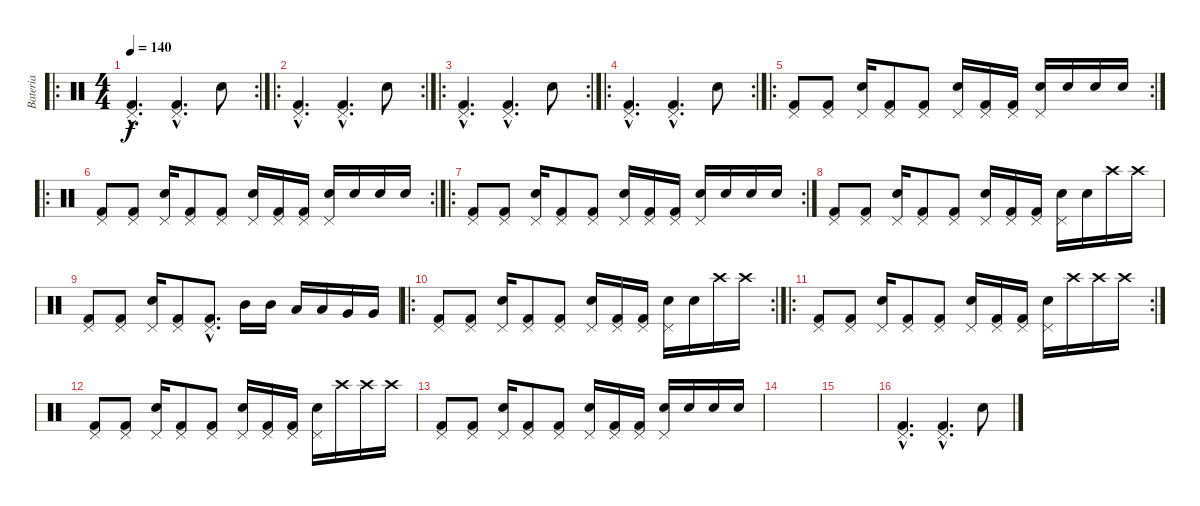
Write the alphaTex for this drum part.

\track ("Bateria" "Bateria") {instrument percussion}
\staff {score}
\articulation defaults
\ro
\rc 2
\ts (4 4)
\tempo 140
\clef neutral
\ks c
("Kick (hit) 2"{hac} "Pedal Hi-Hat (hit)"{hac}).4{d dy f} ("Kick (hit) 2"{hac} "Pedal Hi-Hat (hit)"{hac}).4{d} "Snare (hit) 2".8 |
\ro
\rc 2
("Kick (hit) 2"{hac} "Pedal Hi-Hat (hit)"{hac}).4{d} ("Kick (hit) 2"{hac} "Pedal Hi-Hat (hit)"{hac}).4{d} "Snare (hit) 2".8 |
\ro
\rc 2
("Kick (hit) 2"{hac} "Pedal Hi-Hat (hit)"{hac}).4{d} ("Kick (hit) 2"{hac} "Pedal Hi-Hat (hit)"{hac}).4{d} "Snare (hit) 2".8 |
\ro
\rc 2
("Kick (hit) 2"{hac} "Pedal Hi-Hat (hit)"{hac}).4{d} ("Kick (hit) 2"{hac} "Pedal Hi-Hat (hit)"{hac}).4{d} "Snare (hit) 2".8 |
\ro
\rc 2
("Kick (hit) 2" "Pedal Hi-Hat (hit)").8 ("Kick (hit) 2" "Pedal Hi-Hat (hit)").8 ("Snare (hit) 2" "Pedal Hi-Hat (hit)").16 ("Kick (hit) 2" "Pedal Hi-Hat (hit)").8 ("Kick (hit) 2" "Pedal Hi-Hat (hit)").8 ("Snare (hit) 2" "Pedal Hi-Hat (hit)").16 ("Kick (hit) 2" "Pedal Hi-Hat (hit)").16 ("Kick (hit) 2" "Pedal Hi-Hat (hit)").16 ("Snare (hit) 2" "Pedal Hi-Hat (hit)").16 "Snare (hit) 2".16 "Snare (hit) 2".16 "Snare (hit) 2".16 |
\ro
\rc 2
("Kick (hit) 2" "Pedal Hi-Hat (hit)").8 ("Kick (hit) 2" "Pedal Hi-Hat (hit)").8 ("Snare (hit) 2" "Pedal Hi-Hat (hit)").16 ("Kick (hit) 2" "Pedal Hi-Hat (hit)").8 ("Kick (hit) 2" "Pedal Hi-Hat (hit)").8 ("Snare (hit) 2" "Pedal Hi-Hat (hit)").16 ("Kick (hit) 2" "Pedal Hi-Hat (hit)").16 ("Kick (hit) 2" "Pedal Hi-Hat (hit)").16 ("Snare (hit) 2" "Pedal Hi-Hat (hit)").16 "Snare (hit) 2".16 "Snare (hit) 2".16 "Snare (hit) 2".16 |
\ro
\rc 2
("Kick (hit) 2" "Pedal Hi-Hat (hit)").8 ("Kick (hit) 2" "Pedal Hi-Hat (hit)").8 ("Snare (hit) 2" "Pedal Hi-Hat (hit)").16 ("Kick (hit) 2" "Pedal Hi-Hat (hit)").8 ("Kick (hit) 2" "Pedal Hi-Hat (hit)").8 ("Snare (hit) 2" "Pedal Hi-Hat (hit)").16 ("Kick (hit) 2" "Pedal Hi-Hat (hit)").16 ("Kick (hit) 2" "Pedal Hi-Hat (hit)").16 ("Snare (hit) 2" "Pedal Hi-Hat (hit)").16 "Snare (hit) 2".16 "Snare (hit) 2".16 "Snare (hit) 2".16 |
("Kick (hit) 2" "Pedal Hi-Hat (hit)").8 ("Kick (hit) 2" "Pedal Hi-Hat (hit)").8 ("Snare (hit) 2" "Pedal Hi-Hat (hit)").16 ("Kick (hit) 2" "Pedal Hi-Hat (hit)").8 ("Kick (hit) 2" "Pedal Hi-Hat (hit)").8 ("Snare (hit) 2" "Pedal Hi-Hat (hit)").16 ("Kick (hit) 2" "Pedal Hi-Hat (hit)").16 ("Kick (hit) 2" "Pedal Hi-Hat (hit)").16 ("Snare (hit) 2" "Pedal Hi-Hat (hit)").16 "Snare (hit) 2".16 "Crash high (hit)".16 "Crash high (hit)".16 |
("Kick (hit) 2" "Pedal Hi-Hat (hit)").8 ("Kick (hit) 2" "Pedal Hi-Hat (hit)").8 ("Snare (hit) 2" "Pedal Hi-Hat (hit)").16 ("Kick (hit) 2" "Pedal Hi-Hat (hit)").8 ("Kick (hit) 2"{hac} "Pedal Hi-Hat (hit)"{hac}).8{d} "Mid Tom (hit)".16 "Mid Tom (hit)".16 "Low Tom (hit)".16 "Low Tom (hit)".16 "Very Low Tom (hit)".16 "Very Low Tom (hit)".16 |
\ro
\rc 2
("Kick (hit) 2" "Pedal Hi-Hat (hit)").8 ("Kick (hit) 2" "Pedal Hi-Hat (hit)").8 ("Snare (hit) 2" "Pedal Hi-Hat (hit)").16 ("Kick (hit) 2" "Pedal Hi-Hat (hit)").8 ("Kick (hit) 2" "Pedal Hi-Hat (hit)").8 ("Snare (hit) 2" "Pedal Hi-Hat (hit)").16 ("Kick (hit) 2" "Pedal Hi-Hat (hit)").16 ("Kick (hit) 2" "Pedal Hi-Hat (hit)").16 ("Snare (hit) 2" "Pedal Hi-Hat (hit)").16 "Snare (hit) 2".16 "Crash high (hit)".16 "Crash high (hit)".16 |
\ro
\rc 2
("Kick (hit) 2" "Pedal Hi-Hat (hit)").8 ("Kick (hit) 2" "Pedal Hi-Hat (hit)").8 ("Snare (hit) 2" "Pedal Hi-Hat (hit)").16 ("Kick (hit) 2" "Pedal Hi-Hat (hit)").8 ("Kick (hit) 2" "Pedal Hi-Hat (hit)").8 ("Snare (hit) 2" "Pedal Hi-Hat (hit)").16 ("Kick (hit) 2" "Pedal Hi-Hat (hit)").16 ("Kick (hit) 2" "Pedal Hi-Hat (hit)").16 ("Snare (hit) 2" "Pedal Hi-Hat (hit)").16 "Crash high (hit)".16 "Crash high (hit)".16 "Crash high (hit)".16 |
("Kick (hit) 2" "Pedal Hi-Hat (hit)").8 ("Kick (hit) 2" "Pedal Hi-Hat (hit)").8 ("Snare (hit) 2" "Pedal Hi-Hat (hit)").16 ("Kick (hit) 2" "Pedal Hi-Hat (hit)").8 ("Kick (hit) 2" "Pedal Hi-Hat (hit)").8 ("Snare (hit) 2" "Pedal Hi-Hat (hit)").16 ("Kick (hit) 2" "Pedal Hi-Hat (hit)").16 ("Kick (hit) 2" "Pedal Hi-Hat (hit)").16 ("Snare (hit) 2" "Pedal Hi-Hat (hit)").16 "Crash high (hit)".16 "Crash high (hit)".16 "Crash high (hit)".16 |
("Kick (hit) 2" "Pedal Hi-Hat (hit)").8 ("Kick (hit) 2" "Pedal Hi-Hat (hit)").8 ("Snare (hit) 2" "Pedal Hi-Hat (hit)").16 ("Kick (hit) 2" "Pedal Hi-Hat (hit)").8 ("Kick (hit) 2" "Pedal Hi-Hat (hit)").8 ("Snare (hit) 2" "Pedal Hi-Hat (hit)").16 ("Kick (hit) 2" "Pedal Hi-Hat (hit)").16 ("Kick (hit) 2" "Pedal Hi-Hat (hit)").16 ("Snare (hit) 2" "Pedal Hi-Hat (hit)").16 "Snare (hit) 2".16 "Snare (hit) 2".16 "Snare (hit) 2".16 |
|
|
("Kick (hit) 2"{hac} "Pedal Hi-Hat (hit)"{hac}).4{d} ("Kick (hit) 2"{hac} "Pedal Hi-Hat (hit)"{hac}).4{d} "Snare (hit) 2".8
